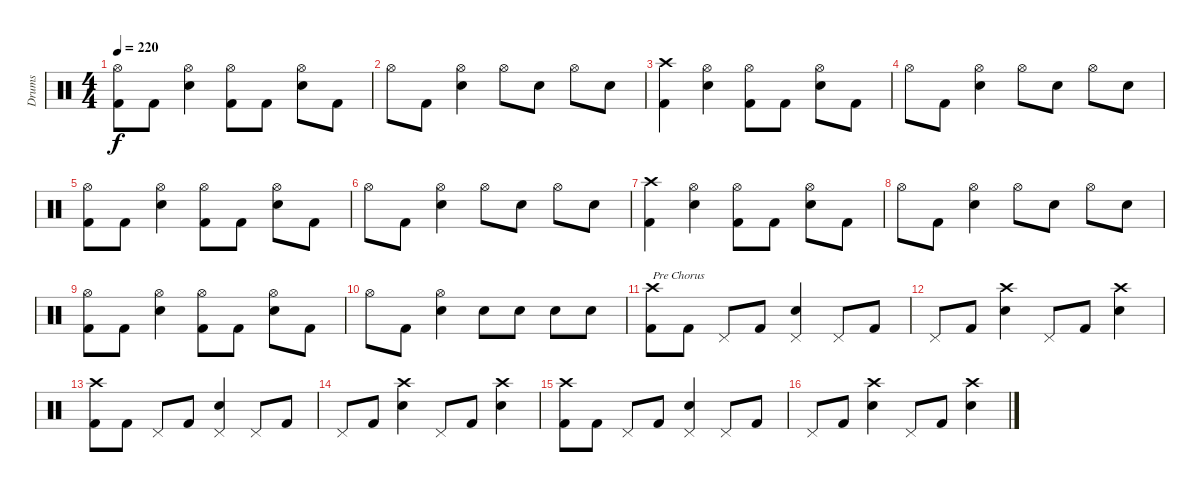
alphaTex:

\track ("Drums" "Drums") {instrument percussion}
\staff {score}
\articulation defaults
\ts (4 4)
\tempo 220
\clef neutral
\ks c
("Hi-Hat (open)" "Kick (hit) 2").8{dy f} "Kick (hit) 2".8 ("Hi-Hat (open)" "Snare (hit) 2").4 ("Hi-Hat (open)" "Kick (hit) 2").8 "Kick (hit) 2".8 ("Hi-Hat (open)" "Snare (hit) 2").8 "Kick (hit) 2".8 |
"Hi-Hat (open)".8 "Kick (hit) 2".8 ("Hi-Hat (open)" "Snare (hit) 2").4 "Hi-Hat (open)".8 "Snare (hit) 2".8 "Hi-Hat (open)".8 "Snare (hit) 2".8 |
("Crash high (hit)" "Kick (hit) 2").4 ("Hi-Hat (open)" "Snare (hit) 2").4 ("Hi-Hat (open)" "Kick (hit) 2").8 "Kick (hit) 2".8 ("Hi-Hat (open)" "Snare (hit) 2").8 "Kick (hit) 2".8 |
"Hi-Hat (open)".8 "Kick (hit) 2".8 ("Hi-Hat (open)" "Snare (hit) 2").4 "Hi-Hat (open)".8 "Snare (hit) 2".8 "Hi-Hat (open)".8 "Snare (hit) 2".8 |
("Hi-Hat (open)" "Kick (hit) 2").8 "Kick (hit) 2".8 ("Hi-Hat (open)" "Snare (hit) 2").4 ("Hi-Hat (open)" "Kick (hit) 2").8 "Kick (hit) 2".8 ("Hi-Hat (open)" "Snare (hit) 2").8 "Kick (hit) 2".8 |
"Hi-Hat (open)".8 "Kick (hit) 2".8 ("Hi-Hat (open)" "Snare (hit) 2").4 "Hi-Hat (open)".8 "Snare (hit) 2".8 "Hi-Hat (open)".8 "Snare (hit) 2".8 |
("Crash high (hit)" "Kick (hit) 2").4 ("Hi-Hat (open)" "Snare (hit) 2").4 ("Hi-Hat (open)" "Kick (hit) 2").8 "Kick (hit) 2".8 ("Hi-Hat (open)" "Snare (hit) 2").8 "Kick (hit) 2".8 |
"Hi-Hat (open)".8 "Kick (hit) 2".8 ("Hi-Hat (open)" "Snare (hit) 2").4 "Hi-Hat (open)".8 "Snare (hit) 2".8 "Hi-Hat (open)".8 "Snare (hit) 2".8 |
("Hi-Hat (open)" "Kick (hit) 2").8 "Kick (hit) 2".8 ("Hi-Hat (open)" "Snare (hit) 2").4 ("Hi-Hat (open)" "Kick (hit) 2").8 "Kick (hit) 2".8 ("Hi-Hat (open)" "Snare (hit) 2").8 "Kick (hit) 2".8 |
"Hi-Hat (open)".8 "Kick (hit) 2".8 ("Hi-Hat (open)" "Snare (hit) 2").4 "Snare (hit) 2".8 "Snare (hit) 2".8 "Snare (hit) 2".8 "Snare (hit) 2".8 |
("Crash high (hit)" "Kick (hit) 2").8{txt "Pre Chorus"} "Kick (hit) 2".8 "Pedal Hi-Hat (hit)".8 "Kick (hit) 2".8 ("Pedal Hi-Hat (hit)" "Snare (hit) 2").4 "Pedal Hi-Hat (hit)".8 "Kick (hit) 2".8 |
"Pedal Hi-Hat (hit)".8 "Kick (hit) 2".8 ("Crash high (hit)" "Snare (hit) 2").4 "Pedal Hi-Hat (hit)".8 "Kick (hit) 2".8 ("Crash high (hit)" "Snare (hit) 2").4 |
("Crash high (hit)" "Kick (hit) 2").8 "Kick (hit) 2".8 "Pedal Hi-Hat (hit)".8 "Kick (hit) 2".8 ("Pedal Hi-Hat (hit)" "Snare (hit) 2").4 "Pedal Hi-Hat (hit)".8 "Kick (hit) 2".8 |
"Pedal Hi-Hat (hit)".8 "Kick (hit) 2".8 ("Crash high (hit)" "Snare (hit) 2").4 "Pedal Hi-Hat (hit)".8 "Kick (hit) 2".8 ("Crash high (hit)" "Snare (hit) 2").4 |
("Crash high (hit)" "Kick (hit) 2").8 "Kick (hit) 2".8 "Pedal Hi-Hat (hit)".8 "Kick (hit) 2".8 ("Pedal Hi-Hat (hit)" "Snare (hit) 2").4 "Pedal Hi-Hat (hit)".8 "Kick (hit) 2".8 |
"Pedal Hi-Hat (hit)".8 "Kick (hit) 2".8 ("Crash high (hit)" "Snare (hit) 2").4 "Pedal Hi-Hat (hit)".8 "Kick (hit) 2".8 ("Crash high (hit)" "Snare (hit) 2").4
